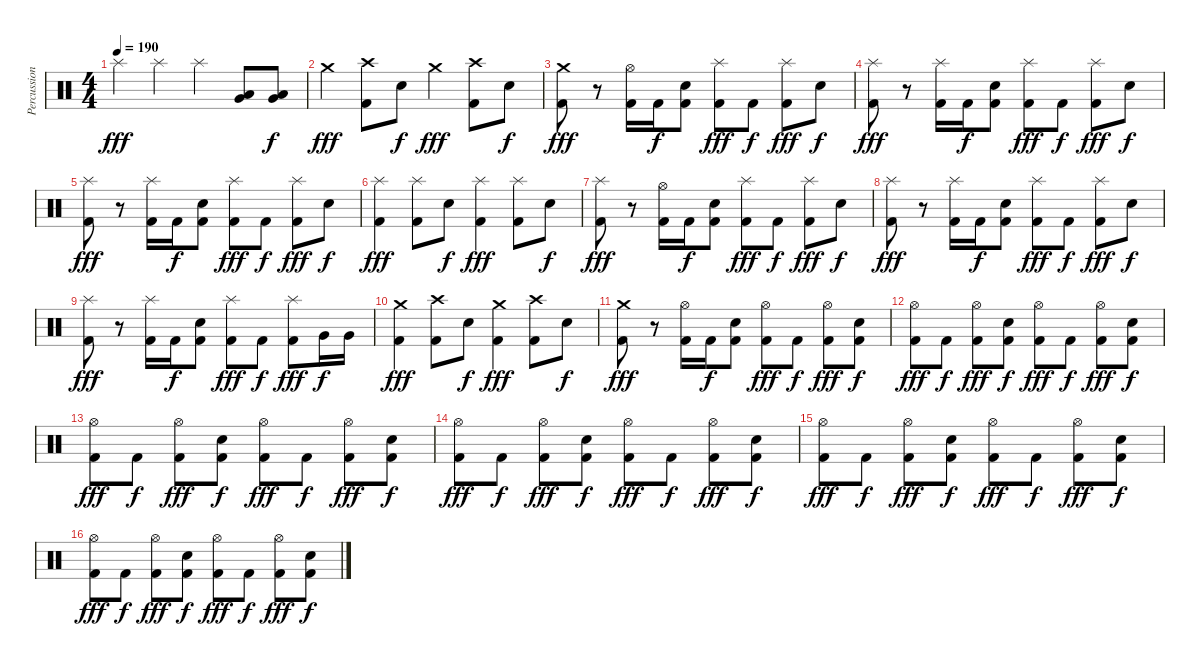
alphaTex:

\track ("Percussions" "Percussion") {instrument percussion}
\staff {score}
\articulation defaults
\ts (4 4)
\tempo 190
\clef neutral
\ks c "Splash (hit)".4{dy fff} "Splash (hit)".4 "Splash (hit)".4
("Very Low Tom (hit)" "Low Floor Tom (hit)").8 ("Very Low Tom (hit)" "Low Floor Tom (hit)").8{dy f} |
"Crash medium (hit)".4{dy fff} ("Crash high (hit)" "Kick (hit) 2").8 "Snare (hit) 2".8{dy f} "Crash medium (hit)".4{dy fff} ("Crash high (hit)" "Kick (hit) 2").8 "Snare (hit) 2".8{dy f} |
("Crash medium (hit)" "Kick (hit) 2").8{dy fff} r.8 ("Hi-Hat (open)" "Kick (hit) 2").16 "Kick (hit) 2".16{dy f} ("Snare (hit) 2" "Kick (hit) 2").8 ("Splash (hit)" "Kick (hit) 2").8{dy fff} "Kick (hit) 2".8{dy f} ("Splash (hit)" "Kick (hit) 2").8{dy fff} "Snare (hit) 2".8{dy f} |
("Splash (hit)" "Kick (hit) 2").8{dy fff} r.8 ("Splash (hit)" "Kick (hit) 2").16 "Kick (hit) 2".16{dy f} ("Snare (hit) 2" "Kick (hit) 2").8 ("Splash (hit)" "Kick (hit) 2").8{dy fff} "Kick (hit) 2".8{dy f} ("Splash (hit)" "Kick (hit) 2").8{dy fff} "Snare (hit) 2".8{dy f} |
("Splash (hit)" "Kick (hit) 2").8{dy fff} r.8 ("Splash (hit)" "Kick (hit) 2").16 "Kick (hit) 2".16{dy f} ("Snare (hit) 2" "Kick (hit) 2").8 ("Splash (hit)" "Kick (hit) 2").8{dy fff} "Kick (hit) 2".8{dy f} ("Splash (hit)" "Kick (hit) 2").8{dy fff} "Snare (hit) 2".8{dy f} |
("Splash (hit)" "Kick (hit) 2").4{dy fff} ("Splash (hit)" "Kick (hit) 2").8 "Snare (hit) 2".8{dy f} ("Splash (hit)" "Kick (hit) 2").4{dy fff} ("Splash (hit)" "Kick (hit) 2").8 "Snare (hit) 2".8{dy f} |
("Splash (hit)" "Kick (hit) 2").8{dy fff} r.8 ("Hi-Hat (open)" "Kick (hit) 2").16 "Kick (hit) 2".16{dy f} ("Snare (hit) 2" "Kick (hit) 2").8 ("Splash (hit)" "Kick (hit) 2").8{dy fff} "Kick (hit) 2".8{dy f} ("Splash (hit)" "Kick (hit) 2").8{dy fff} "Snare (hit) 2".8{dy f} |
("Splash (hit)" "Kick (hit) 2").8{dy fff} r.8 ("Splash (hit)" "Kick (hit) 2").16 "Kick (hit) 2".16{dy f} ("Snare (hit) 2" "Kick (hit) 2").8 ("Splash (hit)" "Kick (hit) 2").8{dy fff} "Kick (hit) 2".8{dy f} ("Splash (hit)" "Kick (hit) 2").8{dy fff} "Snare (hit) 2".8{dy f} |
("Splash (hit)" "Kick (hit) 2").8{dy fff} r.8 ("Splash (hit)" "Kick (hit) 2").16 "Kick (hit) 2".16{dy f} ("Snare (hit) 2" "Kick (hit) 2").8 ("Splash (hit)" "Kick (hit) 2").8{dy fff} "Kick (hit) 2".8{dy f} ("Splash (hit)" "Kick (hit) 2").8{dy fff} "Very Low Tom (hit)".16{dy f} "Very Low Tom (hit)".16 |
("Crash medium (hit)" "Kick (hit) 2").4{dy fff} ("Crash high (hit)" "Kick (hit) 2").8 "Snare (hit) 2".8{dy f} ("Crash medium (hit)" "Kick (hit) 2").4{dy fff} ("Crash high (hit)" "Kick (hit) 2").8 "Snare (hit) 2".8{dy f} |
("Crash medium (hit)" "Kick (hit) 2").8{dy fff} r.8 ("Hi-Hat (open)" "Kick (hit) 2").16 "Kick (hit) 2".16{dy f} ("Snare (hit) 2" "Kick (hit) 2").8 ("Hi-Hat (open)" "Kick (hit) 2").8{dy fff} "Kick (hit) 2".8{dy f} ("Hi-Hat (open)" "Kick (hit) 2").8{dy fff} ("Snare (hit) 2" "Kick (hit) 2").8{dy f} |
("Hi-Hat (open)" "Kick (hit) 2").8{dy fff} "Kick (hit) 2".8{dy f} ("Hi-Hat (open)" "Kick (hit) 2").8{dy fff} ("Snare (hit) 2" "Kick (hit) 2").8{dy f} ("Hi-Hat (open)" "Kick (hit) 2").8{dy fff} "Kick (hit) 2".8{dy f} ("Hi-Hat (open)" "Kick (hit) 2").8{dy fff} ("Snare (hit) 2" "Kick (hit) 2").8{dy f} |
("Hi-Hat (open)" "Kick (hit) 2").8{dy fff} "Kick (hit) 2".8{dy f} ("Hi-Hat (open)" "Kick (hit) 2").8{dy fff} ("Snare (hit) 2" "Kick (hit) 2").8{dy f} ("Hi-Hat (open)" "Kick (hit) 2").8{dy fff} "Kick (hit) 2".8{dy f} ("Hi-Hat (open)" "Kick (hit) 2").8{dy fff} ("Snare (hit) 2" "Kick (hit) 2").8{dy f} |
("Hi-Hat (open)" "Kick (hit) 2").8{dy fff} "Kick (hit) 2".8{dy f} ("Hi-Hat (open)" "Kick (hit) 2").8{dy fff} ("Snare (hit) 2" "Kick (hit) 2").8{dy f} ("Hi-Hat (open)" "Kick (hit) 2").8{dy fff} "Kick (hit) 2".8{dy f} ("Hi-Hat (open)" "Kick (hit) 2").8{dy fff} ("Snare (hit) 2" "Kick (hit) 2").8{dy f} |
("Hi-Hat (open)" "Kick (hit) 2").8{dy fff} "Kick (hit) 2".8{dy f} ("Hi-Hat (open)" "Kick (hit) 2").8{dy fff} ("Snare (hit) 2" "Kick (hit) 2").8{dy f} ("Hi-Hat (open)" "Kick (hit) 2").8{dy fff} "Kick (hit) 2".8{dy f} ("Hi-Hat (open)" "Kick (hit) 2").8{dy fff} ("Snare (hit) 2" "Kick (hit) 2").8{dy f} |
("Hi-Hat (open)" "Kick (hit) 2").8{dy fff} "Kick (hit) 2".8{dy f} ("Hi-Hat (open)" "Kick (hit) 2").8{dy fff} ("Snare (hit) 2" "Kick (hit) 2").8{dy f} ("Hi-Hat (open)" "Kick (hit) 2").8{dy fff} "Kick (hit) 2".8{dy f} ("Hi-Hat (open)" "Kick (hit) 2").8{dy fff} ("Snare (hit) 2" "Kick (hit) 2").8{dy f}
